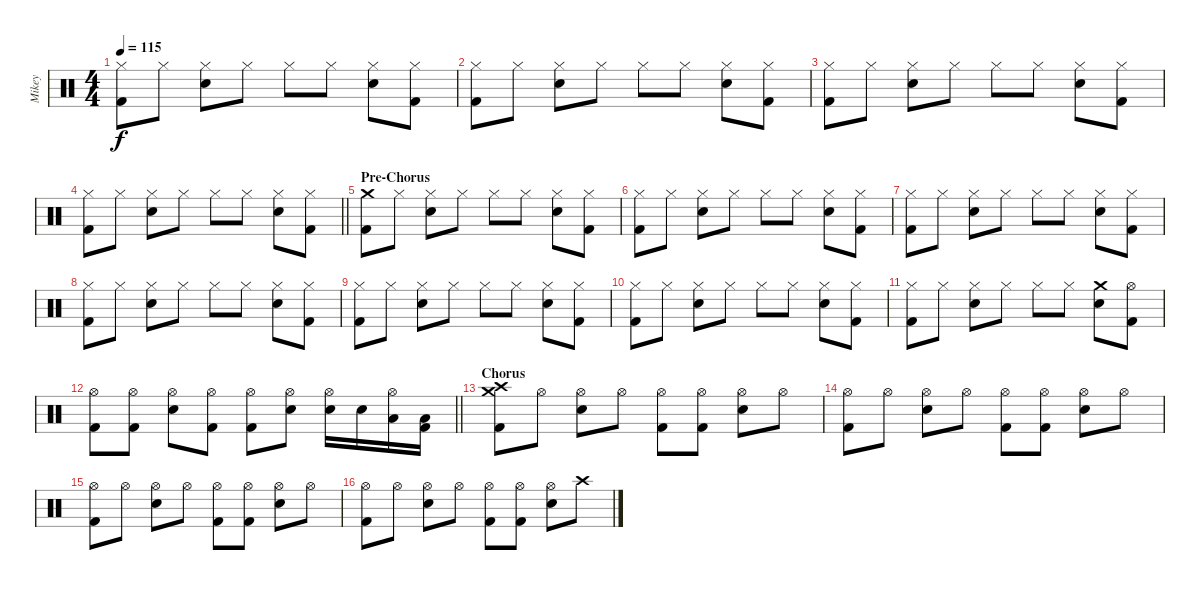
\track ("Mikey" "Mikey") {instrument percussion}
\staff {score}
\articulation defaults
\ts (4 4)
\tempo 115
\clef neutral
\ks c
("Hi-Hat (closed)" "Kick (hit) 2").8{dy f} "Hi-Hat (closed)".8 ("Hi-Hat (closed)" "Snare (hit) 2").8 "Hi-Hat (closed)".8 "Hi-Hat (closed)".8 "Hi-Hat (closed)".8 ("Hi-Hat (closed)" "Snare (hit) 2").8 ("Hi-Hat (closed)" "Kick (hit) 2").8 |
("Hi-Hat (closed)" "Kick (hit) 2").8 "Hi-Hat (closed)".8 ("Hi-Hat (closed)" "Snare (hit) 2").8 "Hi-Hat (closed)".8 "Hi-Hat (closed)".8 "Hi-Hat (closed)".8 ("Hi-Hat (closed)" "Snare (hit) 2").8 ("Hi-Hat (closed)" "Kick (hit) 2").8 |
("Hi-Hat (closed)" "Kick (hit) 2").8 "Hi-Hat (closed)".8 ("Hi-Hat (closed)" "Snare (hit) 2").8 "Hi-Hat (closed)".8 "Hi-Hat (closed)".8 "Hi-Hat (closed)".8 ("Hi-Hat (closed)" "Snare (hit) 2").8 ("Hi-Hat (closed)" "Kick (hit) 2").8 |
\barLineRight lightlight
("Hi-Hat (closed)" "Kick (hit) 2").8 "Hi-Hat (closed)".8 ("Hi-Hat (closed)" "Snare (hit) 2").8 "Hi-Hat (closed)".8 "Hi-Hat (closed)".8 "Hi-Hat (closed)".8 ("Hi-Hat (closed)" "Snare (hit) 2").8 ("Hi-Hat (closed)" "Kick (hit) 2").8 |
\section ("" "Pre-Chorus")
("Crash medium (hit)" "Kick (hit) 2").8 "Hi-Hat (closed)".8 ("Hi-Hat (closed)" "Snare (hit) 2").8 "Hi-Hat (closed)".8 "Hi-Hat (closed)".8 "Hi-Hat (closed)".8 ("Hi-Hat (closed)" "Snare (hit) 2").8 ("Hi-Hat (closed)" "Kick (hit) 2").8 |
("Hi-Hat (closed)" "Kick (hit) 2").8 "Hi-Hat (closed)".8 ("Hi-Hat (closed)" "Snare (hit) 2").8 "Hi-Hat (closed)".8 "Hi-Hat (closed)".8 "Hi-Hat (closed)".8 ("Hi-Hat (closed)" "Snare (hit) 2").8 ("Hi-Hat (closed)" "Kick (hit) 2").8 |
("Hi-Hat (closed)" "Kick (hit) 2").8 "Hi-Hat (closed)".8 ("Hi-Hat (closed)" "Snare (hit) 2").8 "Hi-Hat (closed)".8 "Hi-Hat (closed)".8 "Hi-Hat (closed)".8 ("Hi-Hat (closed)" "Snare (hit) 2").8 ("Hi-Hat (closed)" "Kick (hit) 2").8 |
("Hi-Hat (closed)" "Kick (hit) 2").8 "Hi-Hat (closed)".8 ("Hi-Hat (closed)" "Snare (hit) 2").8 "Hi-Hat (closed)".8 "Hi-Hat (closed)".8 "Hi-Hat (closed)".8 ("Hi-Hat (closed)" "Snare (hit) 2").8 ("Hi-Hat (closed)" "Kick (hit) 2").8 |
("Hi-Hat (closed)" "Kick (hit) 2").8 "Hi-Hat (closed)".8 ("Hi-Hat (closed)" "Snare (hit) 2").8 "Hi-Hat (closed)".8 "Hi-Hat (closed)".8 "Hi-Hat (closed)".8 ("Hi-Hat (closed)" "Snare (hit) 2").8 ("Hi-Hat (closed)" "Kick (hit) 2").8 |
("Hi-Hat (closed)" "Kick (hit) 2").8 "Hi-Hat (closed)".8 ("Hi-Hat (closed)" "Snare (hit) 2").8 "Hi-Hat (closed)".8 "Hi-Hat (closed)".8 "Hi-Hat (closed)".8 ("Hi-Hat (closed)" "Snare (hit) 2").8 ("Hi-Hat (closed)" "Kick (hit) 2").8 |
("Hi-Hat (closed)" "Kick (hit) 2").8 "Hi-Hat (closed)".8 ("Hi-Hat (closed)" "Snare (hit) 2").8 "Hi-Hat (closed)".8 "Hi-Hat (closed)".8 "Hi-Hat (closed)".8 ("Crash medium (hit)" "Snare (hit) 2").8 ("Hi-Hat (open)" "Kick (hit) 2").8 |
\barLineRight lightlight
("Hi-Hat (open)" "Kick (hit) 2").8 ("Hi-Hat (open)" "Kick (hit) 2").8 ("Hi-Hat (open)" "Snare (hit) 2").8 ("Hi-Hat (open)" "Kick (hit) 2").8 ("Hi-Hat (open)" "Kick (hit) 2").8 ("Hi-Hat (open)" "Snare (hit) 2").8 ("Hi-Hat (open)" "Snare (hit) 2").16 "Snare (hit) 2".16 ("Hi-Hat (open)" "Low Tom (hit)").16 ("Low Tom (hit)" "Kick (hit) 2").16 |
\section ("" "Chorus")
("Crash high (hit)" "Crash medium (hit)" "Kick (hit) 2").8 "Hi-Hat (open)".8 ("Hi-Hat (open)" "Snare (hit) 2").8 "Hi-Hat (open)".8 ("Hi-Hat (open)" "Kick (hit) 2").8 ("Hi-Hat (open)" "Kick (hit) 2").8 ("Hi-Hat (open)" "Snare (hit) 2").8 "Hi-Hat (open)".8 |
("Hi-Hat (open)" "Kick (hit) 2").8 "Hi-Hat (open)".8 ("Hi-Hat (open)" "Snare (hit) 2").8 "Hi-Hat (open)".8 ("Hi-Hat (open)" "Kick (hit) 2").8 ("Hi-Hat (open)" "Kick (hit) 2").8 ("Hi-Hat (open)" "Snare (hit) 2").8 "Hi-Hat (open)".8 |
("Hi-Hat (open)" "Kick (hit) 2").8 "Hi-Hat (open)".8 ("Hi-Hat (open)" "Snare (hit) 2").8 "Hi-Hat (open)".8 ("Hi-Hat (open)" "Kick (hit) 2").8 ("Hi-Hat (open)" "Kick (hit) 2").8 ("Hi-Hat (open)" "Snare (hit) 2").8 "Hi-Hat (open)".8 |
("Hi-Hat (open)" "Kick (hit) 2").8 "Hi-Hat (open)".8 ("Hi-Hat (open)" "Snare (hit) 2").8 "Hi-Hat (open)".8 ("Hi-Hat (open)" "Kick (hit) 2").8 ("Hi-Hat (open)" "Kick (hit) 2").8 ("Hi-Hat (open)" "Snare (hit) 2").8 "Crash high (hit)".8
